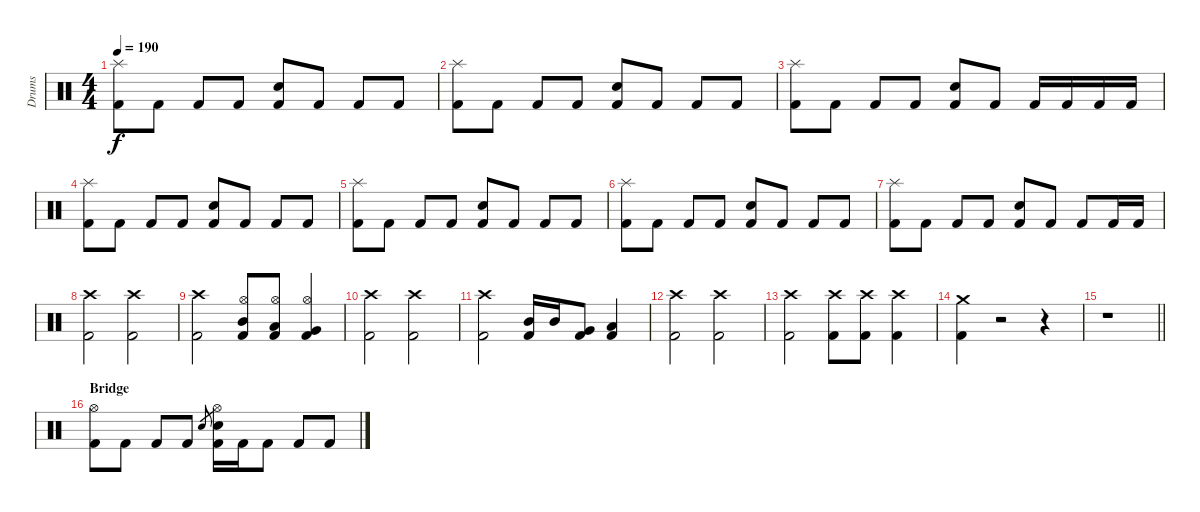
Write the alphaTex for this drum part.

\track ("Drums" "Drums") {instrument percussion}
\staff {score}
\articulation defaults
\ts (4 4)
\tempo 190
\clef neutral
\ks c
("Splash (hit)" "Kick (hit) 2").8{dy f} "Kick (hit) 2".8 "Kick (hit) 2".8 "Kick (hit) 2".8 ("Snare (hit) 2" "Kick (hit) 2").8 "Kick (hit) 2".8 "Kick (hit) 2".8 "Kick (hit) 2".8 |
("Splash (hit)" "Kick (hit) 2").8 "Kick (hit) 2".8 "Kick (hit) 2".8 "Kick (hit) 2".8 ("Snare (hit) 2" "Kick (hit) 2").8 "Kick (hit) 2".8 "Kick (hit) 2".8 "Kick (hit) 2".8 |
("Splash (hit)" "Kick (hit) 2").8 "Kick (hit) 2".8 "Kick (hit) 2".8 "Kick (hit) 2".8 ("Snare (hit) 2" "Kick (hit) 2").8 "Kick (hit) 2".8 "Kick (hit) 2".16 "Kick (hit) 2".16 "Kick (hit) 2".16 "Kick (hit) 2".16 |
("Splash (hit)" "Kick (hit) 2").8 "Kick (hit) 2".8 "Kick (hit) 2".8 "Kick (hit) 2".8 ("Snare (hit) 2" "Kick (hit) 2").8 "Kick (hit) 2".8 "Kick (hit) 2".8 "Kick (hit) 2".8 |
("Splash (hit)" "Kick (hit) 2").8 "Kick (hit) 2".8 "Kick (hit) 2".8 "Kick (hit) 2".8 ("Snare (hit) 2" "Kick (hit) 2").8 "Kick (hit) 2".8 "Kick (hit) 2".8 "Kick (hit) 2".8 |
("Splash (hit)" "Kick (hit) 2").8 "Kick (hit) 2".8 "Kick (hit) 2".8 "Kick (hit) 2".8 ("Snare (hit) 2" "Kick (hit) 2").8 "Kick (hit) 2".8 "Kick (hit) 2".8 "Kick (hit) 2".8 |
("Splash (hit)" "Kick (hit) 2").8 "Kick (hit) 2".8 "Kick (hit) 2".8 "Kick (hit) 2".8 ("Snare (hit) 2" "Kick (hit) 2").8 "Kick (hit) 2".8 "Kick (hit) 2".8 "Kick (hit) 2".16 "Kick (hit) 2".16 |
("Crash high (hit)" "Kick (hit) 2").2 ("Crash high (hit)" "Kick (hit) 2").2 |
("Crash high (hit)" "Kick (hit) 2").2 ("Hi-Hat (open)" "Mid Tom (hit)" "Kick (hit) 2").8 ("Hi-Hat (open)" "Low Tom (hit)" "Kick (hit) 2").8 ("Hi-Hat (open)" "Very Low Tom (hit)" "Kick (hit) 2").4 |
("Crash high (hit)" "Kick (hit) 2").2 ("Crash high (hit)" "Kick (hit) 2").2 |
("Crash high (hit)" "Kick (hit) 2").2 ("Mid Tom (hit)" "Kick (hit) 2").16 "Mid Tom (hit)".16 ("Very Low Tom (hit)" "Kick (hit) 2").8 ("Low Tom (hit)" "Kick (hit) 2").4 |
("Crash high (hit)" "Kick (hit) 2").2 ("Crash high (hit)" "Kick (hit) 2").2 |
("Crash high (hit)" "Kick (hit) 2").2 ("Crash high (hit)" "Kick (hit) 2").8 ("Crash high (hit)" "Kick (hit) 2").8 ("Crash high (hit)" "Kick (hit) 2").4 |
("Crash medium (hit)" "Kick (hit) 2").4 r.2 r.4 |
\barLineRight lightlight
r.1 |
\section ("" "Bridge")
("Hi-Hat (open)" "Kick (hit) 2").8 "Kick (hit) 2".8 "Kick (hit) 2".8 "Kick (hit) 2".8 "Snare (hit) 2".8{gr} ("Hi-Hat (open)" "Snare (hit) 2" "Kick (hit) 2").16 "Kick (hit) 2".16 "Kick (hit) 2".8 "Kick (hit) 2".8 "Kick (hit) 2".8
